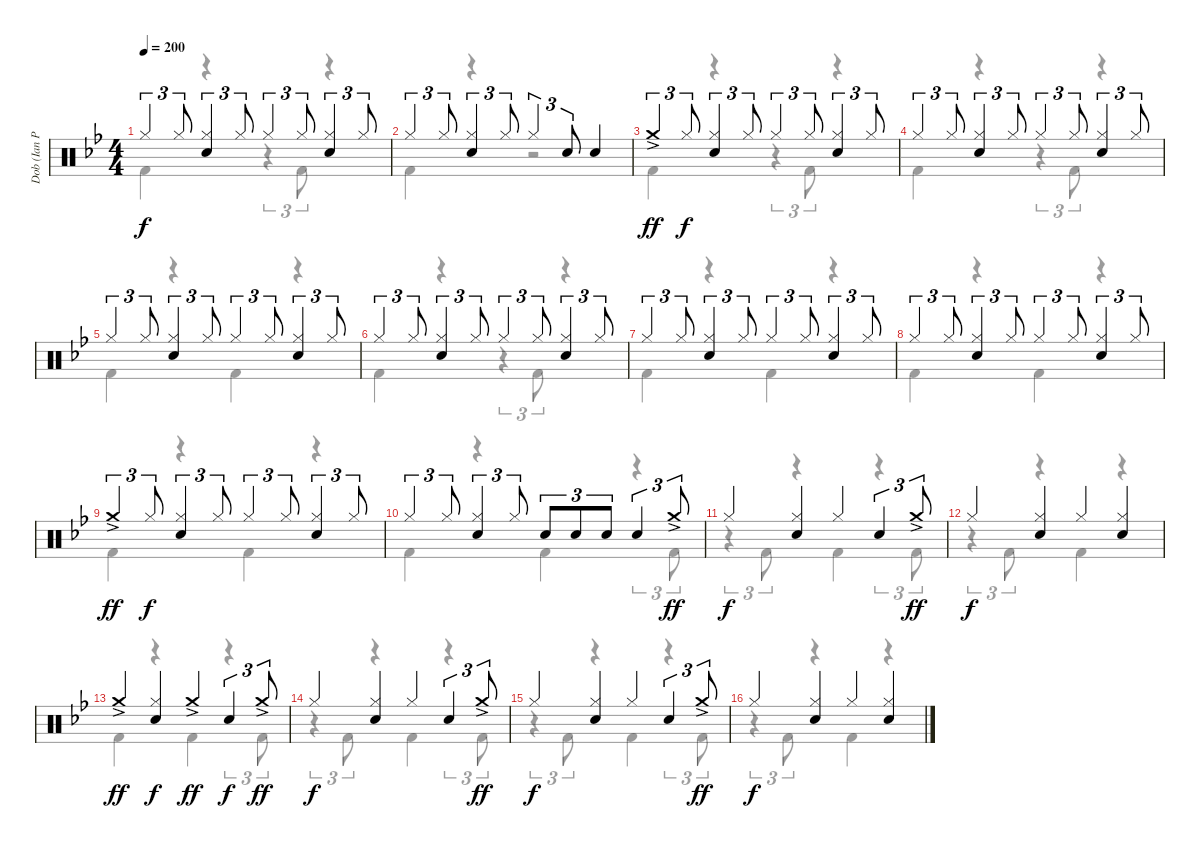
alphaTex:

\track ("Dob (Ian Paice)" "Dob (Ian P") {instrument percussion}
\staff {score}
\articulation defaults
\voice
\ts (4 4)
\tempo 200
\clef neutral
\ks bb "Hi-Hat (closed)".4{tu (3 2) dy f} "Hi-Hat (closed)".8{tu (3 2)}
("Hi-Hat (closed)" "Electric Snare (hit)").4{tu (3 2)} "Hi-Hat (closed)".8{tu (3 2)} "Hi-Hat (closed)".4{tu (3 2)} "Hi-Hat (closed)".8{tu (3 2)} ("Hi-Hat (closed)" "Electric Snare (hit)").4{tu (3 2)} "Hi-Hat (closed)".8{tu (3 2)} |
"Hi-Hat (closed)".4{tu (3 2)} "Hi-Hat (closed)".8{tu (3 2)} ("Hi-Hat (closed)" "Electric Snare (hit)").4{tu (3 2)} "Hi-Hat (closed)".8{tu (3 2)} "Hi-Hat (closed)".4{tu (3 2)} "Electric Snare (hit)".8{tu (3 2)} "Electric Snare (hit)".4 |
"Crash medium (hit)"{ac}.4{tu (3 2) dy ff} "Hi-Hat (closed)".8{tu (3 2) dy f} ("Hi-Hat (closed)" "Electric Snare (hit)").4{tu (3 2)} "Hi-Hat (closed)".8{tu (3 2)} "Hi-Hat (closed)".4{tu (3 2)} "Hi-Hat (closed)".8{tu (3 2)} ("Hi-Hat (closed)" "Electric Snare (hit)").4{tu (3 2)} "Hi-Hat (closed)".8{tu (3 2)} |
"Hi-Hat (closed)".4{tu (3 2)} "Hi-Hat (closed)".8{tu (3 2)} ("Hi-Hat (closed)" "Electric Snare (hit)").4{tu (3 2)} "Hi-Hat (closed)".8{tu (3 2)} "Hi-Hat (closed)".4{tu (3 2)} "Hi-Hat (closed)".8{tu (3 2)} ("Hi-Hat (closed)" "Electric Snare (hit)").4{tu (3 2)} "Hi-Hat (closed)".8{tu (3 2)} |
"Hi-Hat (closed)".4{tu (3 2)} "Hi-Hat (closed)".8{tu (3 2)} ("Hi-Hat (closed)" "Electric Snare (hit)").4{tu (3 2)} "Hi-Hat (closed)".8{tu (3 2)} "Hi-Hat (closed)".4{tu (3 2)} "Hi-Hat (closed)".8{tu (3 2)} ("Hi-Hat (closed)" "Electric Snare (hit)").4{tu (3 2)} "Hi-Hat (closed)".8{tu (3 2)} |
"Hi-Hat (closed)".4{tu (3 2)} "Hi-Hat (closed)".8{tu (3 2)} ("Hi-Hat (closed)" "Electric Snare (hit)").4{tu (3 2)} "Hi-Hat (closed)".8{tu (3 2)} "Hi-Hat (closed)".4{tu (3 2)} "Hi-Hat (closed)".8{tu (3 2)} ("Hi-Hat (closed)" "Electric Snare (hit)").4{tu (3 2)} "Hi-Hat (closed)".8{tu (3 2)} |
"Hi-Hat (closed)".4{tu (3 2)} "Hi-Hat (closed)".8{tu (3 2)} ("Hi-Hat (closed)" "Electric Snare (hit)").4{tu (3 2)} "Hi-Hat (closed)".8{tu (3 2)} "Hi-Hat (closed)".4{tu (3 2)} "Hi-Hat (closed)".8{tu (3 2)} ("Hi-Hat (closed)" "Electric Snare (hit)").4{tu (3 2)} "Hi-Hat (closed)".8{tu (3 2)} |
"Hi-Hat (closed)".4{tu (3 2)} "Hi-Hat (closed)".8{tu (3 2)} ("Hi-Hat (closed)" "Electric Snare (hit)").4{tu (3 2)} "Hi-Hat (closed)".8{tu (3 2)} "Hi-Hat (closed)".4{tu (3 2)} "Hi-Hat (closed)".8{tu (3 2)} ("Hi-Hat (closed)" "Electric Snare (hit)").4{tu (3 2)} "Hi-Hat (closed)".8{tu (3 2)} |
"Crash medium (hit)"{ac}.4{tu (3 2) dy ff} "Hi-Hat (closed)".8{tu (3 2) dy f} ("Hi-Hat (closed)" "Electric Snare (hit)").4{tu (3 2)} "Hi-Hat (closed)".8{tu (3 2)} "Hi-Hat (closed)".4{tu (3 2)} "Hi-Hat (closed)".8{tu (3 2)} ("Hi-Hat (closed)" "Electric Snare (hit)").4{tu (3 2)} "Hi-Hat (closed)".8{tu (3 2)} |
"Hi-Hat (closed)".4{tu (3 2)} "Hi-Hat (closed)".8{tu (3 2)} ("Hi-Hat (closed)" "Electric Snare (hit)").4{tu (3 2)} "Hi-Hat (closed)".8{tu (3 2)} "Electric Snare (hit)".8{tu (3 2)} "Electric Snare (hit)".8{tu (3 2)} "Electric Snare (hit)".8{tu (3 2)} "Electric Snare (hit)".4{tu (3 2)} "Crash medium (hit)"{ac}.8{tu (3 2) dy ff} |
"Hi-Hat (closed)".4{dy f} ("Hi-Hat (closed)" "Electric Snare (hit)").4 "Hi-Hat (closed)".4 "Electric Snare (hit)".4{tu (3 2)} "Crash medium (hit)"{ac}.8{tu (3 2) dy ff} |
"Hi-Hat (closed)".4{dy f} ("Hi-Hat (closed)" "Electric Snare (hit)").4 "Hi-Hat (closed)".4 ("Hi-Hat (closed)" "Electric Snare (hit)").4 |
"Crash medium (hit)"{ac}.4{dy ff} ("Hi-Hat (closed)" "Electric Snare (hit)").4{dy f} "Crash medium (hit)"{ac}.4{dy ff} "Electric Snare (hit)".4{tu (3 2) dy f} "Crash medium (hit)"{ac}.8{tu (3 2) dy ff} |
"Hi-Hat (closed)".4{dy f} ("Hi-Hat (closed)" "Electric Snare (hit)").4 "Hi-Hat (closed)".4 "Electric Snare (hit)".4{tu (3 2)} "Crash medium (hit)"{ac}.8{tu (3 2) dy ff} |
"Hi-Hat (closed)".4{dy f} ("Hi-Hat (closed)" "Electric Snare (hit)").4 "Hi-Hat (closed)".4 "Electric Snare (hit)".4{tu (3 2)} "Crash medium (hit)"{ac}.8{tu (3 2) dy ff} |
"Hi-Hat (closed)".4{dy f} ("Hi-Hat (closed)" "Electric Snare (hit)").4 "Hi-Hat (closed)".4 ("Hi-Hat (closed)" "Electric Snare (hit)").4
\voice
\clef neutral
\ottava regular
\simile none
\ks bb "Kick (hit) 2".4{dy f}
r.4 r.4{tu (3 2)} "Kick (hit) 2".8{tu (3 2)} r.4 |
"Kick (hit) 2".4 r.4 r.2 |
"Kick (hit) 2".4 r.4 r.4{tu (3 2)} "Kick (hit) 2".8{tu (3 2)} r.4 |
"Kick (hit) 2".4 r.4 r.4{tu (3 2)} "Kick (hit) 2".8{tu (3 2)} r.4 |
"Kick (hit) 2".4 r.4 "Kick (hit) 2".4 r.4 |
"Kick (hit) 2".4 r.4 r.4{tu (3 2)} "Kick (hit) 2".8{tu (3 2)} r.4 |
"Kick (hit) 2".4 r.4 "Kick (hit) 2".4 r.4 |
"Kick (hit) 2".4 r.4 "Kick (hit) 2".4 r.4 |
"Kick (hit) 2".4 r.4 "Kick (hit) 2".4 r.4 |
"Kick (hit) 2".4 r.4 "Kick (hit) 2".4 r.4{tu (3 2)} "Kick (hit) 2".8{tu (3 2)} |
r.4{tu (3 2)} "Kick (hit) 2".8{tu (3 2)} r.4 "Kick (hit) 2".4 r.4{tu (3 2)} "Kick (hit) 2".8{tu (3 2)} |
r.4{tu (3 2)} "Kick (hit) 2".8{tu (3 2)} r.4 "Kick (hit) 2".4 r.4 |
"Kick (hit) 2".4 r.4 "Kick (hit) 2".4 r.4{tu (3 2)} "Kick (hit) 2".8{tu (3 2)} |
r.4{tu (3 2)} "Kick (hit) 2".8{tu (3 2)} r.4 "Kick (hit) 2".4 r.4{tu (3 2)} "Kick (hit) 2".8{tu (3 2)} |
r.4{tu (3 2)} "Kick (hit) 2".8{tu (3 2)} r.4 "Kick (hit) 2".4 r.4{tu (3 2)} "Kick (hit) 2".8{tu (3 2)} |
r.4{tu (3 2)} "Kick (hit) 2".8{tu (3 2)} r.4 "Kick (hit) 2".4 r.4
